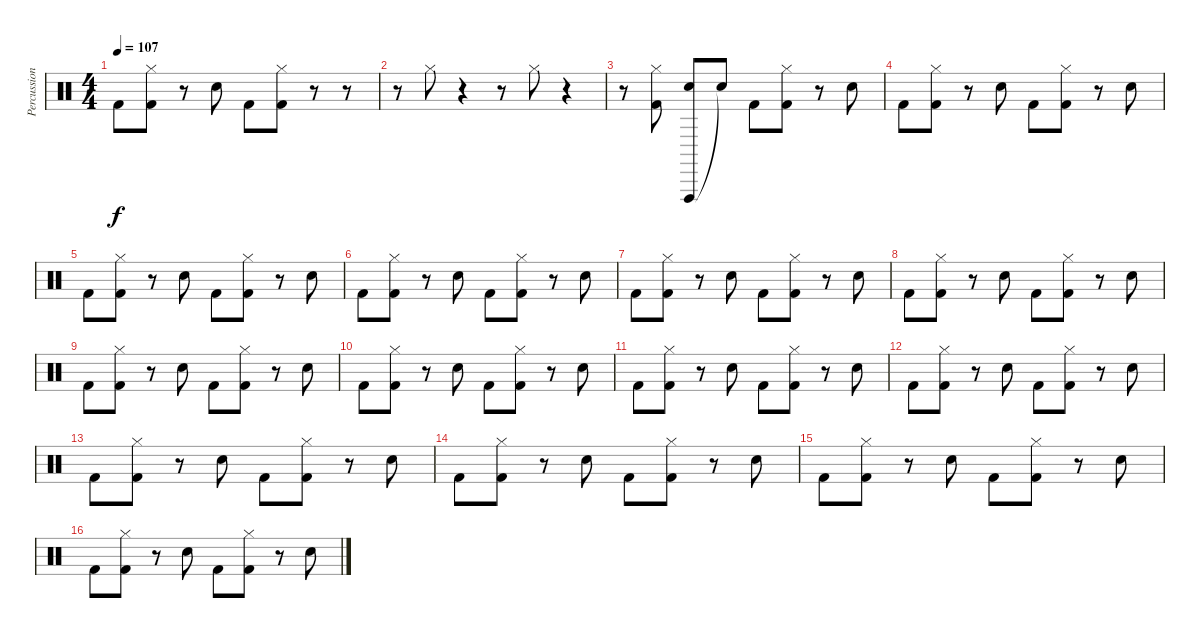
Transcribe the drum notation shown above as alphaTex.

\track ("Percussion" "Percussion") {instrument percussion}
\staff {score}
\articulation defaults
\ts (4 4)
\tempo 107
\clef neutral
\ks c "Kick (hit) 2".8{dy f}
("Hi-Hat (closed)" "Kick (hit) 2").8 r.8 "Electric Snare (hit)".8 "Kick (hit) 2".8 ("Hi-Hat (closed)" "Kick (hit) 2").8 r.8 r.8 |
r.8 "Hi-Hat (closed)".8 r.4 r.8 "Hi-Hat (closed)".8 r.4 |
r.8 ("Hi-Hat (closed)" "Kick (hit) 2").8 ("Vibraslap (hit)" "Electric Snare (hit)").8 "Snare (hit)"{t}.8 "Kick (hit) 2".8 ("Hi-Hat (closed)" "Kick (hit) 2").8 r.8 "Electric Snare (hit)".8 |
"Kick (hit) 2".8 ("Hi-Hat (closed)" "Kick (hit) 2").8 r.8 "Electric Snare (hit)".8 "Kick (hit) 2".8 ("Hi-Hat (closed)" "Kick (hit) 2").8 r.8 "Electric Snare (hit)".8 |
"Kick (hit) 2".8 ("Hi-Hat (closed)" "Kick (hit) 2").8 r.8 "Electric Snare (hit)".8 "Kick (hit) 2".8 ("Hi-Hat (closed)" "Kick (hit) 2").8 r.8 "Electric Snare (hit)".8 |
"Kick (hit) 2".8 ("Hi-Hat (closed)" "Kick (hit) 2").8 r.8 "Electric Snare (hit)".8 "Kick (hit) 2".8 ("Hi-Hat (closed)" "Kick (hit) 2").8 r.8 "Electric Snare (hit)".8 |
"Kick (hit) 2".8 ("Hi-Hat (closed)" "Kick (hit) 2").8 r.8 "Electric Snare (hit)".8 "Kick (hit) 2".8 ("Hi-Hat (closed)" "Kick (hit) 2").8 r.8 "Electric Snare (hit)".8 |
"Kick (hit) 2".8 ("Hi-Hat (closed)" "Kick (hit) 2").8 r.8 "Electric Snare (hit)".8 "Kick (hit) 2".8 ("Hi-Hat (closed)" "Kick (hit) 2").8 r.8 "Electric Snare (hit)".8 |
"Kick (hit) 2".8 ("Hi-Hat (closed)" "Kick (hit) 2").8 r.8 "Electric Snare (hit)".8 "Kick (hit) 2".8 ("Hi-Hat (closed)" "Kick (hit) 2").8 r.8 "Electric Snare (hit)".8 |
"Kick (hit) 2".8 ("Hi-Hat (closed)" "Kick (hit) 2").8 r.8 "Electric Snare (hit)".8 "Kick (hit) 2".8 ("Hi-Hat (closed)" "Kick (hit) 2").8 r.8 "Electric Snare (hit)".8 |
"Kick (hit) 2".8 ("Hi-Hat (closed)" "Kick (hit) 2").8 r.8 "Electric Snare (hit)".8 "Kick (hit) 2".8 ("Hi-Hat (closed)" "Kick (hit) 2").8 r.8 "Electric Snare (hit)".8 |
"Kick (hit) 2".8 ("Hi-Hat (closed)" "Kick (hit) 2").8 r.8 "Electric Snare (hit)".8 "Kick (hit) 2".8 ("Hi-Hat (closed)" "Kick (hit) 2").8 r.8 "Electric Snare (hit)".8 |
"Kick (hit) 2".8 ("Hi-Hat (closed)" "Kick (hit) 2").8 r.8 "Electric Snare (hit)".8 "Kick (hit) 2".8 ("Hi-Hat (closed)" "Kick (hit) 2").8 r.8 "Electric Snare (hit)".8 |
"Kick (hit) 2".8 ("Hi-Hat (closed)" "Kick (hit) 2").8 r.8 "Electric Snare (hit)".8 "Kick (hit) 2".8 ("Hi-Hat (closed)" "Kick (hit) 2").8 r.8 "Electric Snare (hit)".8 |
"Kick (hit) 2".8 ("Hi-Hat (closed)" "Kick (hit) 2").8 r.8 "Electric Snare (hit)".8 "Kick (hit) 2".8 ("Hi-Hat (closed)" "Kick (hit) 2").8 r.8 "Electric Snare (hit)".8 |
"Kick (hit) 2".8 ("Hi-Hat (closed)" "Kick (hit) 2").8 r.8 "Electric Snare (hit)".8 "Kick (hit) 2".8 ("Hi-Hat (closed)" "Kick (hit) 2").8 r.8 "Electric Snare (hit)".8
